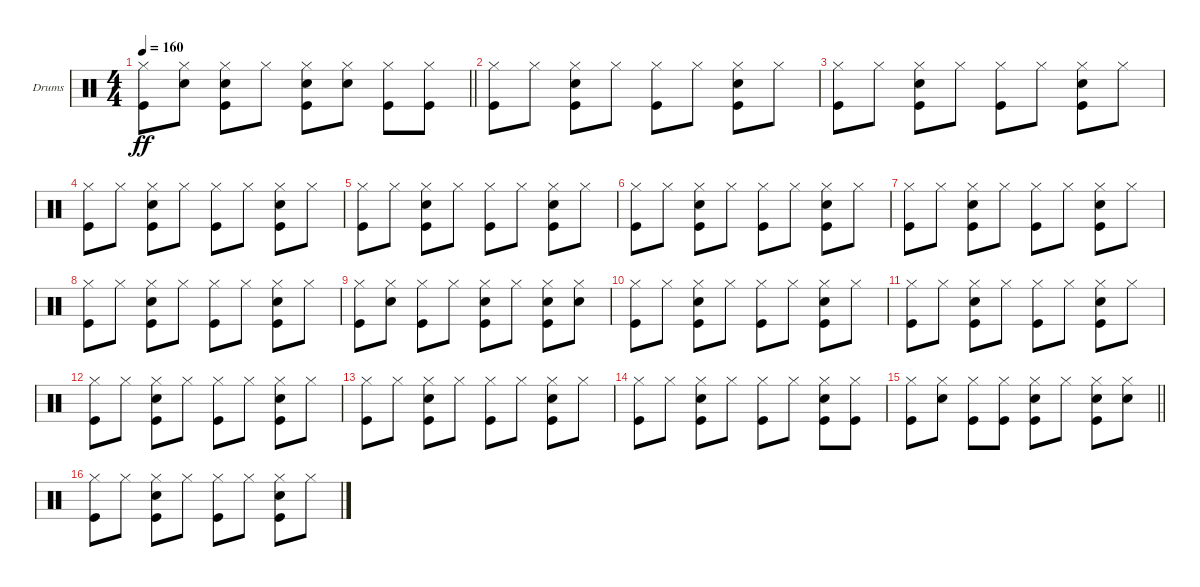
\bracketExtendMode groupsimilarinstruments
\firstSystemTrackNameOrientation horizontal
\otherSystemsTrackNameOrientation horizontal
\track ("Ударные" "Drums") {instrument percussion}
\staff {score}
\articulation defaults
\ts (4 4)
\tempo 160
\clef neutral
\barLineRight lightlight
\ks c
("Hi-Hat (closed)" "Kick (hit)").8{dy ff} ("Hi-Hat (closed)" "Snare (hit) 2").8 ("Hi-Hat (closed)" "Snare (hit) 2" "Kick (hit)").8 "Hi-Hat (closed)".8 ("Hi-Hat (closed)" "Snare (hit) 2" "Kick (hit)").8 ("Hi-Hat (closed)" "Snare (hit) 2").8 ("Hi-Hat (closed)" "Kick (hit)").8 ("Hi-Hat (closed)" "Kick (hit)").8 |
("Hi-Hat (closed)" "Kick (hit)").8 "Hi-Hat (closed)".8 ("Hi-Hat (closed)" "Snare (hit) 2" "Kick (hit)").8 "Hi-Hat (closed)".8 ("Hi-Hat (closed)" "Kick (hit)").8 "Hi-Hat (closed)".8 ("Hi-Hat (closed)" "Snare (hit) 2" "Kick (hit)").8 "Hi-Hat (closed)".8 |
("Hi-Hat (closed)" "Kick (hit)").8 "Hi-Hat (closed)".8 ("Hi-Hat (closed)" "Snare (hit) 2" "Kick (hit)").8 "Hi-Hat (closed)".8 ("Hi-Hat (closed)" "Kick (hit)").8 "Hi-Hat (closed)".8 ("Hi-Hat (closed)" "Snare (hit) 2" "Kick (hit)").8 "Hi-Hat (closed)".8 |
("Hi-Hat (closed)" "Kick (hit)").8 "Hi-Hat (closed)".8 ("Hi-Hat (closed)" "Snare (hit) 2" "Kick (hit)").8 "Hi-Hat (closed)".8 ("Hi-Hat (closed)" "Kick (hit)").8 "Hi-Hat (closed)".8 ("Hi-Hat (closed)" "Snare (hit) 2" "Kick (hit)").8 "Hi-Hat (closed)".8 |
("Hi-Hat (closed)" "Kick (hit)").8 "Hi-Hat (closed)".8 ("Hi-Hat (closed)" "Snare (hit) 2" "Kick (hit)").8 "Hi-Hat (closed)".8 ("Hi-Hat (closed)" "Kick (hit)").8 "Hi-Hat (closed)".8 ("Hi-Hat (closed)" "Snare (hit) 2" "Kick (hit)").8 "Hi-Hat (closed)".8 |
("Hi-Hat (closed)" "Kick (hit)").8 "Hi-Hat (closed)".8 ("Hi-Hat (closed)" "Snare (hit) 2" "Kick (hit)").8 "Hi-Hat (closed)".8 ("Hi-Hat (closed)" "Kick (hit)").8 "Hi-Hat (closed)".8 ("Hi-Hat (closed)" "Snare (hit) 2" "Kick (hit)").8 "Hi-Hat (closed)".8 |
("Hi-Hat (closed)" "Kick (hit)").8 "Hi-Hat (closed)".8 ("Hi-Hat (closed)" "Snare (hit) 2" "Kick (hit)").8 "Hi-Hat (closed)".8 ("Hi-Hat (closed)" "Kick (hit)").8 "Hi-Hat (closed)".8 ("Hi-Hat (closed)" "Snare (hit) 2" "Kick (hit)").8 "Hi-Hat (closed)".8 |
("Hi-Hat (closed)" "Kick (hit)").8 "Hi-Hat (closed)".8 ("Hi-Hat (closed)" "Snare (hit) 2" "Kick (hit)").8 "Hi-Hat (closed)".8 ("Hi-Hat (closed)" "Kick (hit)").8 "Hi-Hat (closed)".8 ("Hi-Hat (closed)" "Snare (hit) 2" "Kick (hit)").8 "Hi-Hat (closed)".8 |
("Hi-Hat (closed)" "Kick (hit)").8 ("Hi-Hat (closed)" "Snare (hit) 2").8 ("Hi-Hat (closed)" "Kick (hit)").8 "Hi-Hat (closed)".8 ("Hi-Hat (closed)" "Snare (hit) 2" "Kick (hit)").8 "Hi-Hat (closed)".8 ("Hi-Hat (closed)" "Snare (hit) 2" "Kick (hit)").8 ("Hi-Hat (closed)" "Snare (hit) 2").8 |
("Hi-Hat (closed)" "Kick (hit)").8 "Hi-Hat (closed)".8 ("Hi-Hat (closed)" "Snare (hit) 2" "Kick (hit)").8 "Hi-Hat (closed)".8 ("Hi-Hat (closed)" "Kick (hit)").8 "Hi-Hat (closed)".8 ("Hi-Hat (closed)" "Snare (hit) 2" "Kick (hit)").8 "Hi-Hat (closed)".8 |
("Hi-Hat (closed)" "Kick (hit)").8 "Hi-Hat (closed)".8 ("Hi-Hat (closed)" "Snare (hit) 2" "Kick (hit)").8 "Hi-Hat (closed)".8 ("Hi-Hat (closed)" "Kick (hit)").8 "Hi-Hat (closed)".8 ("Hi-Hat (closed)" "Snare (hit) 2" "Kick (hit)").8 "Hi-Hat (closed)".8 |
("Hi-Hat (closed)" "Kick (hit)").8 "Hi-Hat (closed)".8 ("Hi-Hat (closed)" "Snare (hit) 2" "Kick (hit)").8 "Hi-Hat (closed)".8 ("Hi-Hat (closed)" "Kick (hit)").8 "Hi-Hat (closed)".8 ("Hi-Hat (closed)" "Snare (hit) 2" "Kick (hit)").8 "Hi-Hat (closed)".8 |
("Hi-Hat (closed)" "Kick (hit)").8 "Hi-Hat (closed)".8 ("Hi-Hat (closed)" "Snare (hit) 2" "Kick (hit)").8 "Hi-Hat (closed)".8 ("Hi-Hat (closed)" "Kick (hit)").8 "Hi-Hat (closed)".8 ("Hi-Hat (closed)" "Snare (hit) 2" "Kick (hit)").8 "Hi-Hat (closed)".8 |
("Hi-Hat (closed)" "Kick (hit)").8 "Hi-Hat (closed)".8 ("Hi-Hat (closed)" "Snare (hit) 2" "Kick (hit)").8 "Hi-Hat (closed)".8 ("Hi-Hat (closed)" "Kick (hit)").8 "Hi-Hat (closed)".8 ("Hi-Hat (closed)" "Snare (hit) 2" "Kick (hit)").8 ("Hi-Hat (closed)" "Kick (hit)").8 |
\barLineRight lightlight
("Hi-Hat (closed)" "Kick (hit)").8 ("Hi-Hat (closed)" "Snare (hit) 2").8 ("Hi-Hat (closed)" "Kick (hit)").8 ("Hi-Hat (closed)" "Kick (hit)").8 ("Hi-Hat (closed)" "Snare (hit) 2" "Kick (hit)").8 "Hi-Hat (closed)".8 ("Hi-Hat (closed)" "Snare (hit) 2" "Kick (hit)").8 ("Hi-Hat (closed)" "Snare (hit) 2").8 |
("Hi-Hat (closed)" "Kick (hit)").8 "Hi-Hat (closed)".8 ("Hi-Hat (closed)" "Snare (hit) 2" "Kick (hit)").8 "Hi-Hat (closed)".8 ("Hi-Hat (closed)" "Kick (hit)").8 "Hi-Hat (closed)".8 ("Hi-Hat (closed)" "Snare (hit) 2" "Kick (hit)").8 "Hi-Hat (closed)".8
